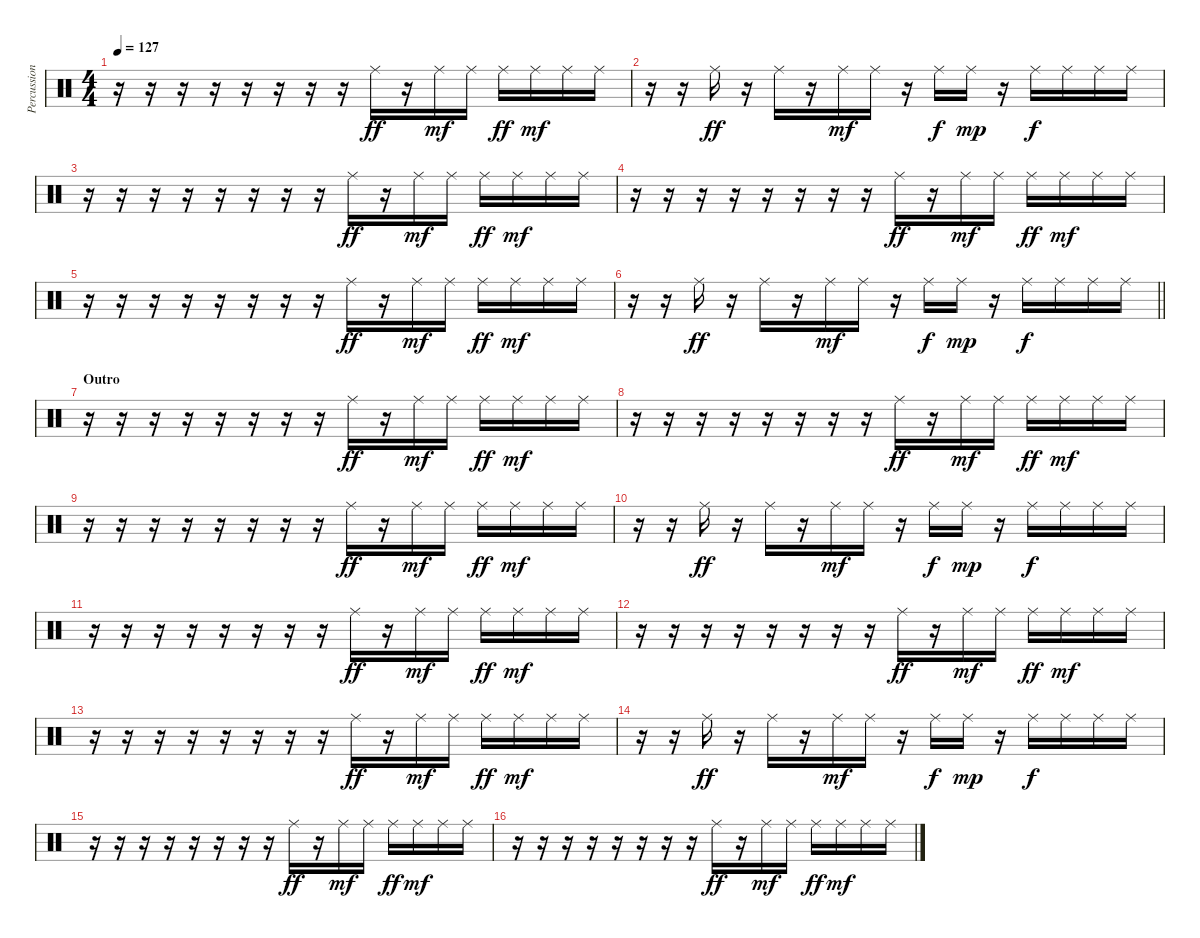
\track ("Percussion" "Percussion") {instrument percussion}
\staff {score}
\articulation defaults
\ts (4 4)
\tempo 127
\clef neutral
\ks c
r.16{dy mf} r.16 r.16 r.16 r.16 r.16 r.16 r.16 "Ride (middle)".16{dy ff} r.16 "Ride (middle)".16{dy mf} "Ride (middle)".16 "Ride (middle)".16{dy ff} "Ride (middle)".16{dy mf} "Ride (middle)".16 "Ride (middle)".16 |
r.16 r.16 "Ride (middle)".16{dy ff} r.16 "Ride (middle)".16 r.16 "Ride (middle)".16{dy mf} "Ride (middle)".16 r.16 "Ride (middle)".16{dy f} "Ride (middle)".16{dy mp} r.16 "Ride (middle)".16{dy f} "Ride (middle)".16 "Ride (middle)".16 "Ride (middle)".16 |
r.16 r.16 r.16 r.16 r.16 r.16 r.16 r.16 "Ride (middle)".16{dy ff} r.16 "Ride (middle)".16{dy mf} "Ride (middle)".16 "Ride (middle)".16{dy ff} "Ride (middle)".16{dy mf} "Ride (middle)".16 "Ride (middle)".16 |
r.16 r.16 r.16 r.16 r.16 r.16 r.16 r.16 "Ride (middle)".16{dy ff} r.16 "Ride (middle)".16{dy mf} "Ride (middle)".16 "Ride (middle)".16{dy ff} "Ride (middle)".16{dy mf} "Ride (middle)".16 "Ride (middle)".16 |
r.16 r.16 r.16 r.16 r.16 r.16 r.16 r.16 "Ride (middle)".16{dy ff} r.16 "Ride (middle)".16{dy mf} "Ride (middle)".16 "Ride (middle)".16{dy ff} "Ride (middle)".16{dy mf} "Ride (middle)".16 "Ride (middle)".16 |
\barLineRight lightlight
r.16 r.16 "Ride (middle)".16{dy ff} r.16 "Ride (middle)".16 r.16 "Ride (middle)".16{dy mf} "Ride (middle)".16 r.16 "Ride (middle)".16{dy f} "Ride (middle)".16{dy mp} r.16 "Ride (middle)".16{dy f} "Ride (middle)".16 "Ride (middle)".16 "Ride (middle)".16 |
\section ("" "Outro")
r.16 r.16 r.16 r.16 r.16 r.16 r.16 r.16 "Ride (middle)".16{dy ff} r.16 "Ride (middle)".16{dy mf} "Ride (middle)".16 "Ride (middle)".16{dy ff} "Ride (middle)".16{dy mf} "Ride (middle)".16 "Ride (middle)".16 |
r.16 r.16 r.16 r.16 r.16 r.16 r.16 r.16 "Ride (middle)".16{dy ff} r.16 "Ride (middle)".16{dy mf} "Ride (middle)".16 "Ride (middle)".16{dy ff} "Ride (middle)".16{dy mf} "Ride (middle)".16 "Ride (middle)".16 |
r.16 r.16 r.16 r.16 r.16 r.16 r.16 r.16 "Ride (middle)".16{dy ff} r.16 "Ride (middle)".16{dy mf} "Ride (middle)".16 "Ride (middle)".16{dy ff} "Ride (middle)".16{dy mf} "Ride (middle)".16 "Ride (middle)".16 |
r.16 r.16 "Ride (middle)".16{dy ff} r.16 "Ride (middle)".16 r.16 "Ride (middle)".16{dy mf} "Ride (middle)".16 r.16 "Ride (middle)".16{dy f} "Ride (middle)".16{dy mp} r.16 "Ride (middle)".16{dy f} "Ride (middle)".16 "Ride (middle)".16 "Ride (middle)".16 |
r.16 r.16 r.16 r.16 r.16 r.16 r.16 r.16 "Ride (middle)".16{dy ff} r.16 "Ride (middle)".16{dy mf} "Ride (middle)".16 "Ride (middle)".16{dy ff} "Ride (middle)".16{dy mf} "Ride (middle)".16 "Ride (middle)".16 |
r.16 r.16 r.16 r.16 r.16 r.16 r.16 r.16 "Ride (middle)".16{dy ff} r.16 "Ride (middle)".16{dy mf} "Ride (middle)".16 "Ride (middle)".16{dy ff} "Ride (middle)".16{dy mf} "Ride (middle)".16 "Ride (middle)".16 |
r.16 r.16 r.16 r.16 r.16 r.16 r.16 r.16 "Ride (middle)".16{dy ff} r.16 "Ride (middle)".16{dy mf} "Ride (middle)".16 "Ride (middle)".16{dy ff} "Ride (middle)".16{dy mf} "Ride (middle)".16 "Ride (middle)".16 |
r.16 r.16 "Ride (middle)".16{dy ff} r.16 "Ride (middle)".16 r.16 "Ride (middle)".16{dy mf} "Ride (middle)".16 r.16 "Ride (middle)".16{dy f} "Ride (middle)".16{dy mp} r.16 "Ride (middle)".16{dy f} "Ride (middle)".16 "Ride (middle)".16 "Ride (middle)".16 |
r.16 r.16 r.16 r.16 r.16 r.16 r.16 r.16 "Ride (middle)".16{dy ff} r.16 "Ride (middle)".16{dy mf} "Ride (middle)".16 "Ride (middle)".16{dy ff} "Ride (middle)".16{dy mf} "Ride (middle)".16 "Ride (middle)".16 |
r.16 r.16 r.16 r.16 r.16 r.16 r.16 r.16 "Ride (middle)".16{dy ff} r.16 "Ride (middle)".16{dy mf} "Ride (middle)".16 "Ride (middle)".16{dy ff} "Ride (middle)".16{dy mf} "Ride (middle)".16 "Ride (middle)".16
